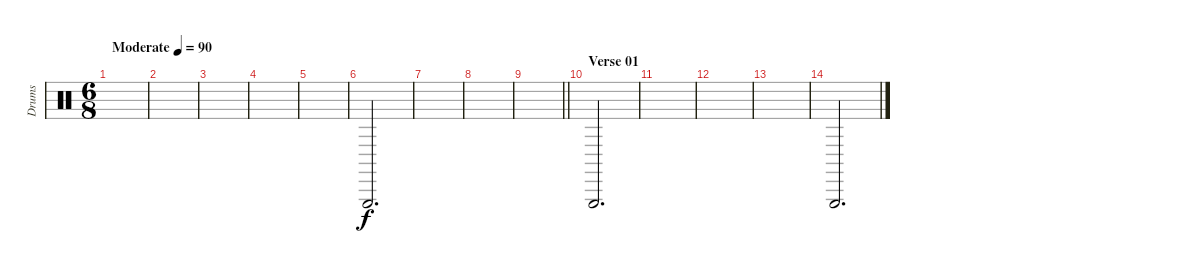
\track ("Drums" "Drums") {instrument percussion}
\staff {score}
\articulation defaults
\ts (6 8)
\tempo (90 "Moderate")
\clef neutral
\ks c
|
|
|
|
|
"Triangle (hit)".2{d} |
|
|
\barLineRight lightlight
|
\section ("" "Verse 01")
"Triangle (hit)".2{d} |
|
|
|
"Triangle (hit)".2{d}
